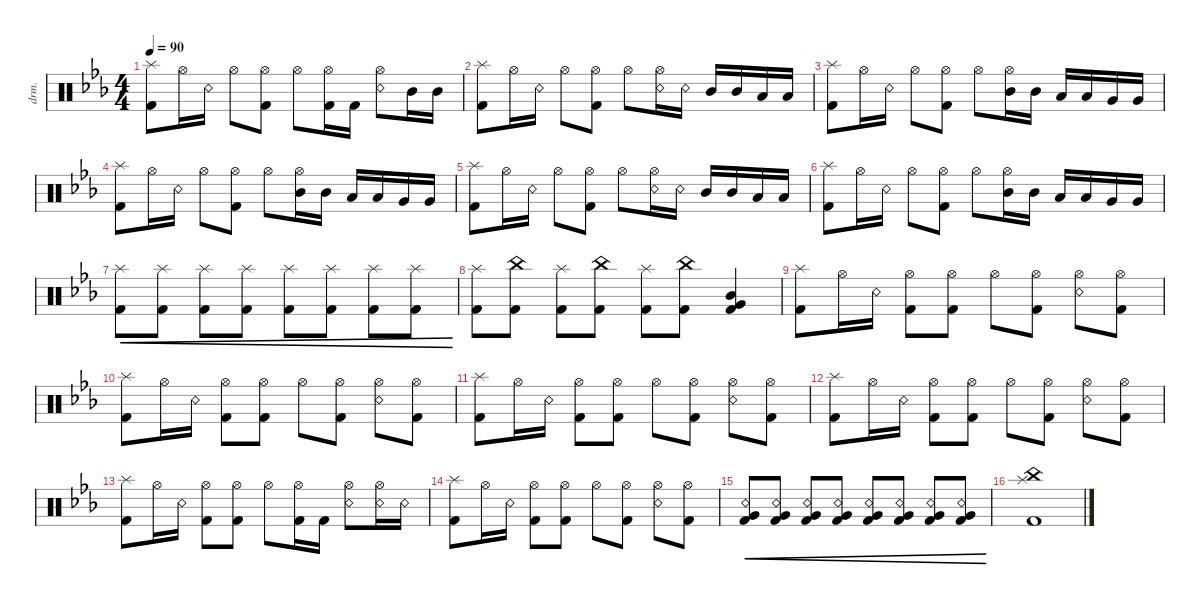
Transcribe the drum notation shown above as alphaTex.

\defaultSystemsLayout 4
\hideDynamics
\bracketExtendMode nobrackets
\otherSystemsTrackNameOrientation horizontal
\track ("Drumkit" "drm.") {instrument percussion}
\staff {score}
\articulation defaults
\ts (4 4)
\tempo 90
\clef neutral
\ks cminor
("Splash (hit)"{acc forcenatural} "Kick (hit) 2"{acc forcenatural}).8{dy ff beam Down} "Hi-Hat (open)"{acc forcenatural}.16{beam Down} "Snare (rim shot)"{acc forcenatural}.16{beam Down} "Hi-Hat (open)"{acc forcenatural}.8{beam Down} ("Hi-Hat (open)"{acc forcenatural} "Kick (hit) 2"{acc forcenatural}).8{beam Down} "Hi-Hat (open)"{acc forcenatural}.8{beam Down} ("Hi-Hat (open)"{acc forcenatural} "Kick (hit) 2"{acc forcenatural}).16{beam Down} "Kick (hit) 2"{acc forcenatural}.16{beam Down} ("Hi-Hat (open)"{acc forcenatural} "Snare (rim shot)"{acc forcenatural}).8{beam Down} "Mid Tom (hit)"{acc forcenatural}.16{beam Down} "Mid Tom (hit)"{acc forcenatural}.16{beam Down} |
("Splash (hit)"{acc forcenatural} "Kick (hit) 2"{acc forcenatural}).8{beam Down} "Hi-Hat (open)"{acc forcenatural}.16{beam Down} "Snare (rim shot)"{acc forcenatural}.16{beam Down} "Hi-Hat (open)"{acc forcenatural}.8{beam Down} ("Hi-Hat (open)"{acc forcenatural} "Kick (hit) 2"{acc forcenatural}).8{beam Down} "Hi-Hat (open)"{acc forcenatural}.8{beam Down} ("Hi-Hat (open)"{acc forcenatural} "Snare (rim shot)"{acc forcenatural}).16{beam Down} "Snare (rim shot)"{acc forcenatural}.16{beam Down} "Mid Tom (hit)"{acc forcenatural}.16{beam Up} "Mid Tom (hit)"{acc forcenatural}.16{beam Up} "Low Tom (hit)"{acc forcenatural}.16{beam Up} "Low Tom (hit)"{acc forcenatural}.16{beam Up} |
("Splash (hit)"{acc forcenatural} "Kick (hit) 2"{acc forcenatural}).8{beam Down} "Hi-Hat (open)"{acc forcenatural}.16{beam Down} "Snare (rim shot)"{acc forcenatural}.16{beam Down} "Hi-Hat (open)"{acc forcenatural}.8{beam Down} ("Hi-Hat (open)"{acc forcenatural} "Kick (hit) 2"{acc forcenatural}).8{beam Down} "Hi-Hat (open)"{acc forcenatural}.8{beam Down} ("Hi-Hat (open)"{acc forcenatural} "Mid Tom (hit)"{acc forcenatural}).16{beam Down} "Mid Tom (hit)"{acc forcenatural}.16{beam Down} "Low Tom (hit)"{acc forcenatural}.16{beam Up} "Low Tom (hit)"{acc forcenatural}.16{beam Up} "Very Low Tom (hit)"{acc forcenatural}.16{beam Up} "Very Low Tom (hit)"{acc forcenatural}.16{beam Up} |
("Splash (hit)"{acc forcenatural} "Kick (hit) 2"{acc forcenatural}).8{beam Down} "Hi-Hat (open)"{acc forcenatural}.16{beam Down} "Snare (rim shot)"{acc forcenatural}.16{beam Down} "Hi-Hat (open)"{acc forcenatural}.8{beam Down} ("Hi-Hat (open)"{acc forcenatural} "Kick (hit) 2"{acc forcenatural}).8{beam Down} "Hi-Hat (open)"{acc forcenatural}.8{beam Down} ("Hi-Hat (open)"{acc forcenatural} "Mid Tom (hit)"{acc forcenatural}).16{beam Down} "Mid Tom (hit)"{acc forcenatural}.16{beam Down} "Low Tom (hit)"{acc forcenatural}.16{beam Up} "Low Tom (hit)"{acc forcenatural}.16{beam Up} "Very Low Tom (hit)"{acc forcenatural}.16{beam Up} "Very Low Tom (hit)"{acc forcenatural}.16{beam Up} |
("Splash (hit)"{acc forcenatural} "Kick (hit) 2"{acc forcenatural}).8{beam Down} "Hi-Hat (open)"{acc forcenatural}.16{beam Down} "Snare (rim shot)"{acc forcenatural}.16{beam Down} "Hi-Hat (open)"{acc forcenatural}.8{beam Down} ("Hi-Hat (open)"{acc forcenatural} "Kick (hit) 2"{acc forcenatural}).8{beam Down} "Hi-Hat (open)"{acc forcenatural}.8{beam Down} ("Hi-Hat (open)"{acc forcenatural} "Snare (rim shot)"{acc forcenatural}).16{beam Down} "Snare (rim shot)"{acc forcenatural}.16{beam Down} "Mid Tom (hit)"{acc forcenatural}.16{beam Up} "Mid Tom (hit)"{acc forcenatural}.16{beam Up} "Low Tom (hit)"{acc forcenatural}.16{beam Up} "Low Tom (hit)"{acc forcenatural}.16{beam Up} |
("Splash (hit)"{acc forcenatural} "Kick (hit) 2"{acc forcenatural}).8{beam Down} "Hi-Hat (open)"{acc forcenatural}.16{beam Down} "Snare (rim shot)"{acc forcenatural}.16{beam Down} "Hi-Hat (open)"{acc forcenatural}.8{beam Down} ("Hi-Hat (open)"{acc forcenatural} "Kick (hit) 2"{acc forcenatural}).8{beam Down} "Hi-Hat (open)"{acc forcenatural}.8{beam Down} ("Hi-Hat (open)"{acc forcenatural} "Mid Tom (hit)"{acc forcenatural}).16{beam Down} "Mid Tom (hit)"{acc forcenatural}.16{beam Down} "Low Tom (hit)"{acc forcenatural}.16{beam Up} "Low Tom (hit)"{acc forcenatural}.16{beam Up} "Very Low Tom (hit)"{acc forcenatural}.16{beam Up} "Very Low Tom (hit)"{acc forcenatural}.16{beam Up} |
("Kick (hit) 2"{acc forcenatural} "Splash (hit)"{acc forcenatural}).8{cre dy mf beam Down} ("Kick (hit) 2"{acc forcenatural} "Splash (hit)"{acc forcenatural}).8{cre beam Down} ("Kick (hit) 2"{acc forcenatural} "Splash (hit)"{acc forcenatural}).8{cre beam Down} ("Kick (hit) 2"{acc forcenatural} "Splash (hit)"{acc forcenatural}).8{cre beam Down} ("Kick (hit) 2"{acc forcenatural} "Splash (hit)"{acc forcenatural}).8{cre dy f beam Down} ("Kick (hit) 2"{acc forcenatural} "Splash (hit)"{acc forcenatural}).8{cre beam Down} ("Kick (hit) 2"{acc forcenatural} "Splash (hit)"{acc forcenatural}).8{cre dy ff beam Down} ("Kick (hit) 2"{acc forcenatural} "Splash (hit)"{acc forcenatural}).8{cre beam Down} |
("Kick (hit) 2"{acc forcenatural} "Splash (hit)"{acc forcenatural}).8{beam Down} ("Kick (hit) 2"{acc forcenatural} "China (hit)"{acc forcenatural}).8{beam Down} ("Kick (hit) 2"{acc forcenatural} "Splash (hit)"{acc forcenatural}).8{beam Down} ("Kick (hit) 2"{acc forcenatural} "China (hit)"{acc forcenatural}).8{beam Down} ("Kick (hit) 2"{acc forcenatural} "Splash (hit)"{acc forcenatural}).8{beam Down} ("Kick (hit) 2"{acc forcenatural} "China (hit)"{acc forcenatural}).8{beam Down} ("Very Low Tom (hit)"{acc forcenatural} "Kick (hit) 2"{acc forcenatural} "Mid Tom (hit)"{acc forcenatural}).4{beam Up} |
("Kick (hit) 2"{acc forcenatural} "Splash (hit)"{acc forcenatural}).8{beam Down} "Hi-Hat (open)"{acc forcenatural}.16{beam Down} "Snare (rim shot)"{acc forcenatural}.16{beam Down} ("Hi-Hat (open)"{acc forcenatural} "Kick (hit) 2"{acc forcenatural}).8{beam Down} ("Hi-Hat (open)"{acc forcenatural} "Kick (hit) 2"{acc forcenatural}).8{beam Down} "Hi-Hat (open)"{acc forcenatural}.8{beam Down} ("Hi-Hat (open)"{acc forcenatural} "Kick (hit) 2"{acc forcenatural}).8{beam Down} ("Hi-Hat (open)"{acc forcenatural} "Snare (rim shot)"{acc forcenatural}).8{beam Down} ("Hi-Hat (open)"{acc forcenatural} "Kick (hit) 2"{acc forcenatural}).8{beam Down} |
("Kick (hit) 2"{acc forcenatural} "Splash (hit)"{acc forcenatural}).8{beam Down} "Hi-Hat (open)"{acc forcenatural}.16{beam Down} "Snare (rim shot)"{acc forcenatural}.16{beam Down} ("Hi-Hat (open)"{acc forcenatural} "Kick (hit) 2"{acc forcenatural}).8{beam Down} ("Hi-Hat (open)"{acc forcenatural} "Kick (hit) 2"{acc forcenatural}).8{beam Down} "Hi-Hat (open)"{acc forcenatural}.8{beam Down} ("Hi-Hat (open)"{acc forcenatural} "Kick (hit) 2"{acc forcenatural}).8{beam Down} ("Hi-Hat (open)"{acc forcenatural} "Snare (rim shot)"{acc forcenatural}).8{beam Down} ("Hi-Hat (open)"{acc forcenatural} "Kick (hit) 2"{acc forcenatural}).8{beam Down} |
("Kick (hit) 2"{acc forcenatural} "Splash (hit)"{acc forcenatural}).8{beam Down} "Hi-Hat (open)"{acc forcenatural}.16{beam Down} "Snare (rim shot)"{acc forcenatural}.16{beam Down} ("Hi-Hat (open)"{acc forcenatural} "Kick (hit) 2"{acc forcenatural}).8{beam Down} ("Hi-Hat (open)"{acc forcenatural} "Kick (hit) 2"{acc forcenatural}).8{beam Down} "Hi-Hat (open)"{acc forcenatural}.8{beam Down} ("Hi-Hat (open)"{acc forcenatural} "Kick (hit) 2"{acc forcenatural}).8{beam Down} ("Hi-Hat (open)"{acc forcenatural} "Snare (rim shot)"{acc forcenatural}).8{beam Down} ("Hi-Hat (open)"{acc forcenatural} "Kick (hit) 2"{acc forcenatural}).8{beam Down} |
("Kick (hit) 2"{acc forcenatural} "Splash (hit)"{acc forcenatural}).8{beam Down} "Hi-Hat (open)"{acc forcenatural}.16{beam Down} "Snare (rim shot)"{acc forcenatural}.16{beam Down} ("Hi-Hat (open)"{acc forcenatural} "Kick (hit) 2"{acc forcenatural}).8{beam Down} ("Hi-Hat (open)"{acc forcenatural} "Kick (hit) 2"{acc forcenatural}).8{beam Down} "Hi-Hat (open)"{acc forcenatural}.8{beam Down} ("Hi-Hat (open)"{acc forcenatural} "Kick (hit) 2"{acc forcenatural}).8{beam Down} ("Hi-Hat (open)"{acc forcenatural} "Snare (rim shot)"{acc forcenatural}).8{beam Down} ("Hi-Hat (open)"{acc forcenatural} "Kick (hit) 2"{acc forcenatural}).8{beam Down} |
("Kick (hit) 2"{acc forcenatural} "Splash (hit)"{acc forcenatural}).8{beam Down} "Hi-Hat (open)"{acc forcenatural}.16{beam Down} "Snare (rim shot)"{acc forcenatural}.16{beam Down} ("Hi-Hat (open)"{acc forcenatural} "Kick (hit) 2"{acc forcenatural}).8{beam Down} ("Hi-Hat (open)"{acc forcenatural} "Kick (hit) 2"{acc forcenatural}).8{beam Down} "Hi-Hat (open)"{acc forcenatural}.8{beam Down} ("Hi-Hat (open)"{acc forcenatural} "Kick (hit) 2"{acc forcenatural}).16{beam Down} "Kick (hit) 2"{acc forcenatural}.16{beam Down} ("Hi-Hat (open)"{acc forcenatural} "Snare (rim shot)"{acc forcenatural}).8{beam Down} ("Hi-Hat (open)"{acc forcenatural} "Snare (rim shot)"{acc forcenatural}).16{beam Down} "Snare (rim shot)"{acc forcenatural}.16{beam Down} |
("Kick (hit) 2"{acc forcenatural} "Splash (hit)"{acc forcenatural}).8{beam Down} "Hi-Hat (open)"{acc forcenatural}.16{beam Down} "Snare (rim shot)"{acc forcenatural}.16{beam Down} ("Hi-Hat (open)"{acc forcenatural} "Kick (hit) 2"{acc forcenatural}).8{beam Down} ("Hi-Hat (open)"{acc forcenatural} "Kick (hit) 2"{acc forcenatural}).8{beam Down} "Hi-Hat (open)"{acc forcenatural}.8{beam Down} ("Hi-Hat (open)"{acc forcenatural} "Kick (hit) 2"{acc forcenatural}).8{beam Down} ("Hi-Hat (open)"{acc forcenatural} "Snare (rim shot)"{acc forcenatural}).8{beam Down} ("Hi-Hat (open)"{acc forcenatural} "Kick (hit) 2"{acc forcenatural}).8{beam Down} |
("Kick (hit) 2"{acc forcenatural} "Very Low Tom (hit)"{acc forcenatural} "Snare (rim shot)"{acc forcenatural}).8{cre dy mf beam Up} ("Kick (hit) 2"{acc forcenatural} "Very Low Tom (hit)"{acc forcenatural} "Snare (rim shot)"{acc forcenatural}).8{cre beam Up} ("Kick (hit) 2"{acc forcenatural} "Very Low Tom (hit)"{acc forcenatural} "Snare (rim shot)"{acc forcenatural}).8{cre beam Up} ("Kick (hit) 2"{acc forcenatural} "Very Low Tom (hit)"{acc forcenatural} "Snare (rim shot)"{acc forcenatural}).8{cre beam Up} ("Kick (hit) 2"{acc forcenatural} "Very Low Tom (hit)"{acc forcenatural} "Snare (rim shot)"{acc forcenatural}).8{cre dy f beam Up} ("Kick (hit) 2"{acc forcenatural} "Very Low Tom (hit)"{acc forcenatural} "Snare (rim shot)"{acc forcenatural}).8{cre beam Up} ("Kick (hit) 2"{acc forcenatural} "Very Low Tom (hit)"{acc forcenatural} "Snare (rim shot)"{acc forcenatural}).8{cre dy ff beam Up} ("Kick (hit) 2"{acc forcenatural} "Very Low Tom (hit)"{acc forcenatural} "Snare (rim shot)"{acc forcenatural}).8{cre beam Up} |
("Splash (hit)"{acc forcenatural} "China (hit)"{acc forcenatural} "Kick (hit) 2"{acc forcenatural}).1{beam Down}
